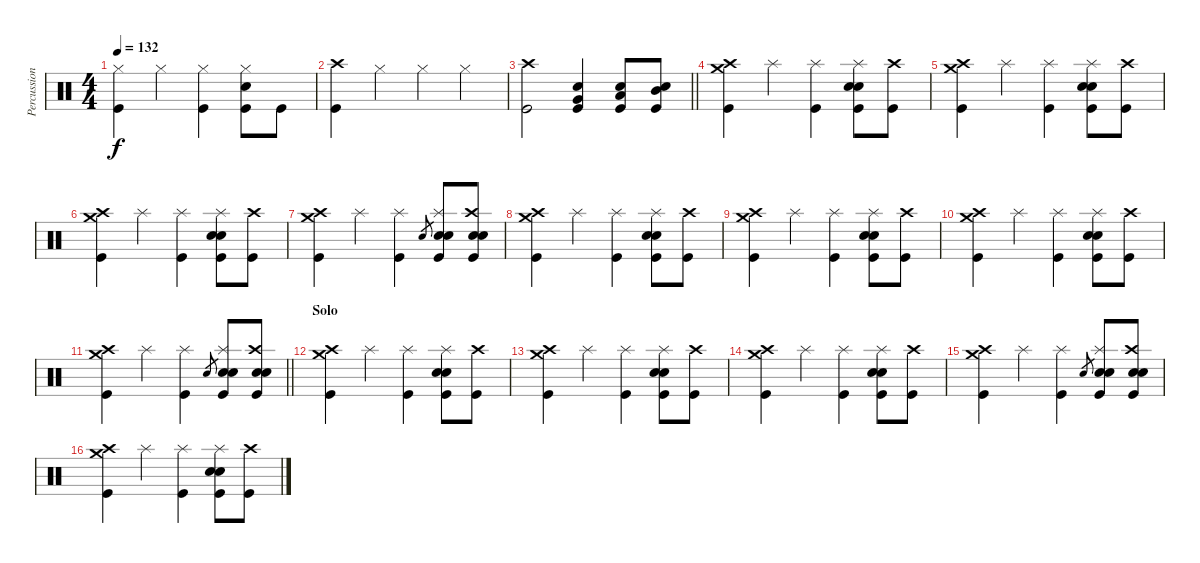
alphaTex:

\track ("Percussion" "Percussion") {instrument percussion}
\staff {score}
\articulation defaults
\ts (4 4)
\tempo 132
\clef neutral
\ks c
("Hi-Hat (closed)" "Kick (hit)").4{dy f} "Hi-Hat (closed)".4 ("Hi-Hat (closed)" "Kick (hit)").4 ("Hi-Hat (closed)" "Electric Snare (hit)" "Kick (hit)").8 "Kick (hit)".8 |
("Crash high (hit)" "Kick (hit)").4 "Hi-Hat (closed)".4 "Hi-Hat (closed)".4 "Hi-Hat (closed)".4 |
\barLineRight lightlight
("Crash high (hit)" "Kick (hit)").2 ("Electric Snare (hit)" "Very Low Tom (hit)" "Kick (hit)").4 ("Electric Snare (hit)" "Low Tom (hit)" "Kick (hit)").8 ("Electric Snare (hit)" "Mid Tom (hit)" "Kick (hit)").8 |
("Crash high (hit)" "Crash medium (hit)" "Kick (hit)").4 "Splash (hit)".4 ("Splash (hit)" "Kick (hit)").4 ("Splash (hit)" "Electric Snare (hit)" "Snare (hit) 2" "Kick (hit)").8 ("Crash high (hit)" "Kick (hit)").8 |
("Crash high (hit)" "Crash medium (hit)" "Kick (hit)").4 "Splash (hit)".4 ("Splash (hit)" "Kick (hit)").4 ("Splash (hit)" "Electric Snare (hit)" "Snare (hit) 2" "Kick (hit)").8 ("Crash high (hit)" "Kick (hit)").8 |
("Crash high (hit)" "Crash medium (hit)" "Kick (hit)").4 "Splash (hit)".4 ("Splash (hit)" "Kick (hit)").4 ("Splash (hit)" "Electric Snare (hit)" "Snare (hit) 2" "Kick (hit)").8 ("Crash high (hit)" "Kick (hit)").8 |
("Crash high (hit)" "Crash medium (hit)" "Kick (hit)").4 "Splash (hit)".4 ("Splash (hit)" "Kick (hit)").4 "Electric Snare (hit)".8{gr} ("Splash (hit)" "Electric Snare (hit)" "Snare (hit) 2" "Kick (hit)").8 ("Crash high (hit)" "Electric Snare (hit)" "Snare (hit) 2" "Kick (hit)").8 |
("Crash high (hit)" "Crash medium (hit)" "Kick (hit)").4 "Splash (hit)".4 ("Splash (hit)" "Kick (hit)").4 ("Splash (hit)" "Electric Snare (hit)" "Snare (hit) 2" "Kick (hit)").8 ("Crash high (hit)" "Kick (hit)").8 |
("Crash high (hit)" "Crash medium (hit)" "Kick (hit)").4 "Splash (hit)".4 ("Splash (hit)" "Kick (hit)").4 ("Splash (hit)" "Electric Snare (hit)" "Snare (hit) 2" "Kick (hit)").8 ("Crash high (hit)" "Kick (hit)").8 |
("Crash high (hit)" "Crash medium (hit)" "Kick (hit)").4 "Splash (hit)".4 ("Splash (hit)" "Kick (hit)").4 ("Splash (hit)" "Electric Snare (hit)" "Snare (hit) 2" "Kick (hit)").8 ("Crash high (hit)" "Kick (hit)").8 |
\barLineRight lightlight
("Crash high (hit)" "Crash medium (hit)" "Kick (hit)").4 "Splash (hit)".4 ("Splash (hit)" "Kick (hit)").4 "Electric Snare (hit)".8{gr} ("Splash (hit)" "Electric Snare (hit)" "Snare (hit) 2" "Kick (hit)").8 ("Crash high (hit)" "Electric Snare (hit)" "Snare (hit) 2" "Kick (hit)").8 |
\section ("" "Solo")
("Crash high (hit)" "Crash medium (hit)" "Kick (hit)").4 "Splash (hit)".4 ("Splash (hit)" "Kick (hit)").4 ("Splash (hit)" "Electric Snare (hit)" "Snare (hit) 2" "Kick (hit)").8 ("Crash high (hit)" "Kick (hit)").8 |
("Crash high (hit)" "Crash medium (hit)" "Kick (hit)").4 "Splash (hit)".4 ("Splash (hit)" "Kick (hit)").4 ("Splash (hit)" "Electric Snare (hit)" "Snare (hit) 2" "Kick (hit)").8 ("Crash high (hit)" "Kick (hit)").8 |
("Crash high (hit)" "Crash medium (hit)" "Kick (hit)").4 "Splash (hit)".4 ("Splash (hit)" "Kick (hit)").4 ("Splash (hit)" "Electric Snare (hit)" "Snare (hit) 2" "Kick (hit)").8 ("Crash high (hit)" "Kick (hit)").8 |
("Crash high (hit)" "Crash medium (hit)" "Kick (hit)").4 "Splash (hit)".4 ("Splash (hit)" "Kick (hit)").4 "Electric Snare (hit)".8{gr} ("Splash (hit)" "Electric Snare (hit)" "Snare (hit) 2" "Kick (hit)").8 ("Crash high (hit)" "Electric Snare (hit)" "Snare (hit) 2" "Kick (hit)").8 |
("Crash high (hit)" "Crash medium (hit)" "Kick (hit)").4 "Splash (hit)".4 ("Splash (hit)" "Kick (hit)").4 ("Splash (hit)" "Electric Snare (hit)" "Snare (hit) 2" "Kick (hit)").8 ("Crash high (hit)" "Kick (hit)").8
